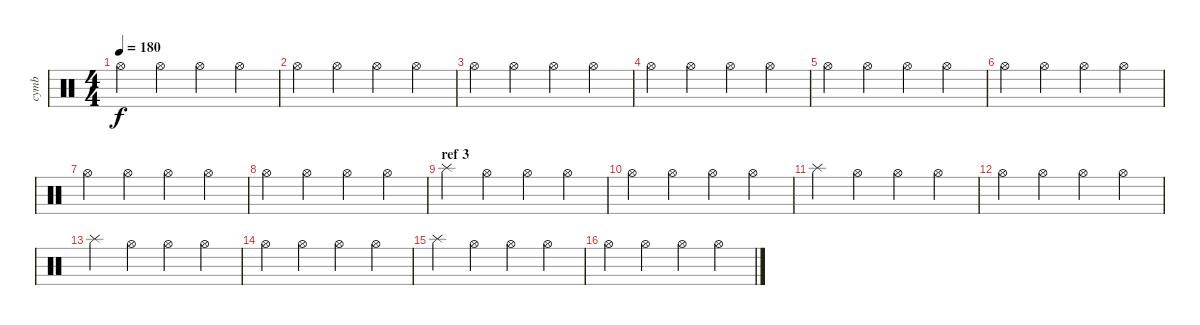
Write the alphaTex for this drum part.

\track ("cymb" "cymb") {instrument percussion}
\staff {score}
\articulation defaults
\ts (4 4)
\tempo 180
\clef neutral
\ks c "Hi-Hat (open)".4{dy f} "Hi-Hat (open)".4 "Hi-Hat (open)".4 "Hi-Hat (open)".4
|
"Hi-Hat (open)".4 "Hi-Hat (open)".4 "Hi-Hat (open)".4 "Hi-Hat (open)".4 |
"Hi-Hat (open)".4 "Hi-Hat (open)".4 "Hi-Hat (open)".4 "Hi-Hat (open)".4 |
"Hi-Hat (open)".4 "Hi-Hat (open)".4 "Hi-Hat (open)".4 "Hi-Hat (open)".4 |
"Hi-Hat (open)".4 "Hi-Hat (open)".4 "Hi-Hat (open)".4 "Hi-Hat (open)".4 |
"Hi-Hat (open)".4 "Hi-Hat (open)".4 "Hi-Hat (open)".4 "Hi-Hat (open)".4 |
"Hi-Hat (open)".4 "Hi-Hat (open)".4 "Hi-Hat (open)".4 "Hi-Hat (open)".4 |
"Hi-Hat (open)".4 "Hi-Hat (open)".4 "Hi-Hat (open)".4 "Hi-Hat (open)".4 |
\section ("" "ref 3")
"Splash (hit)".4 "Hi-Hat (open)".4 "Hi-Hat (open)".4 "Hi-Hat (open)".4 |
"Hi-Hat (open)".4 "Hi-Hat (open)".4 "Hi-Hat (open)".4 "Hi-Hat (open)".4 |
"Splash (hit)".4 "Hi-Hat (open)".4 "Hi-Hat (open)".4 "Hi-Hat (open)".4 |
"Hi-Hat (open)".4 "Hi-Hat (open)".4 "Hi-Hat (open)".4 "Hi-Hat (open)".4 |
"Splash (hit)".4 "Hi-Hat (open)".4 "Hi-Hat (open)".4 "Hi-Hat (open)".4 |
"Hi-Hat (open)".4 "Hi-Hat (open)".4 "Hi-Hat (open)".4 "Hi-Hat (open)".4 |
"Splash (hit)".4 "Hi-Hat (open)".4 "Hi-Hat (open)".4 "Hi-Hat (open)".4 |
"Hi-Hat (open)".4 "Hi-Hat (open)".4 "Hi-Hat (open)".4 "Hi-Hat (open)".4
